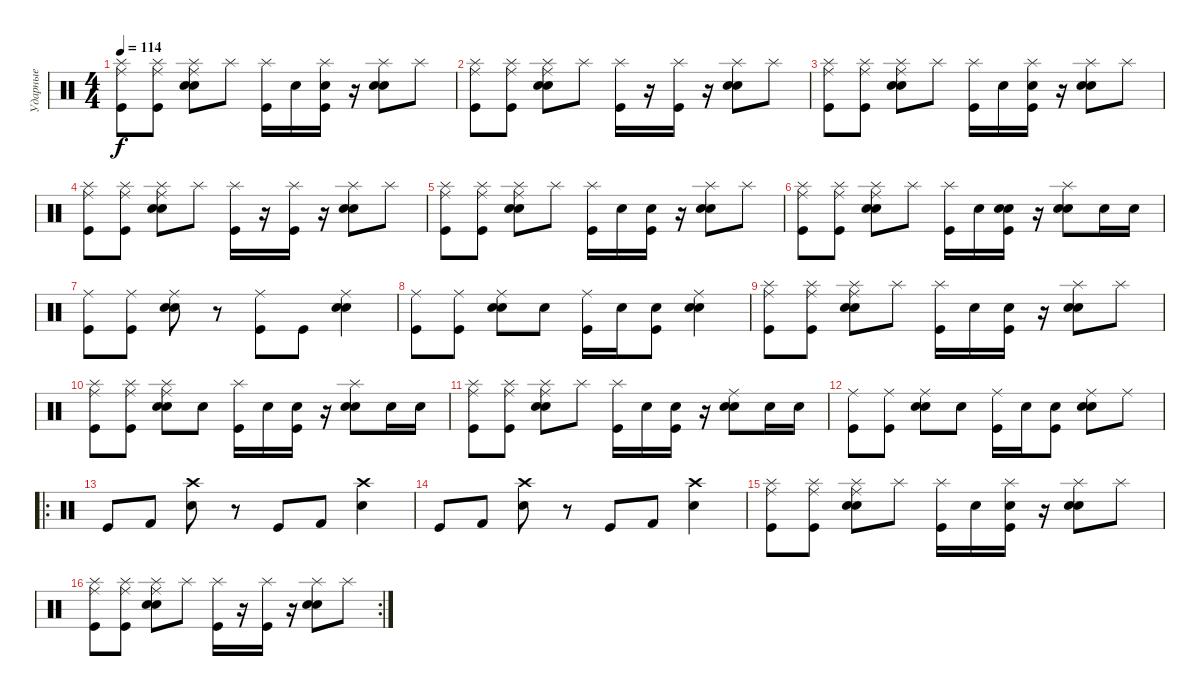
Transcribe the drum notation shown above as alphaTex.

\track ("Ударные" "Ударные") {instrument percussion}
\staff {score}
\articulation defaults
\ts (4 4)
\tempo 114
\clef neutral
\ks c
("Splash (hit)" "Ride (middle)" "Kick (hit)").8{dy f} ("Splash (hit)" "Ride (middle)" "Kick (hit)").8 ("Splash (hit)" "Ride (middle)" "Electric Snare (hit)" "Snare (hit) 2").8 "Splash (hit)".8 ("Splash (hit)" "Kick (hit)").16 "Electric Snare (hit)".16 ("Splash (hit)" "Snare (hit) 2" "Kick (hit)").16 r.16 ("Splash (hit)" "Electric Snare (hit)" "Snare (hit) 2").8 "Splash (hit)".8 |
("Splash (hit)" "Ride (middle)" "Kick (hit)").8 ("Splash (hit)" "Ride (middle)" "Kick (hit)").8 ("Splash (hit)" "Ride (middle)" "Electric Snare (hit)" "Snare (hit) 2").8 "Splash (hit)".8 ("Splash (hit)" "Kick (hit)").16 r.16 ("Splash (hit)" "Kick (hit)").16 r.16 ("Splash (hit)" "Electric Snare (hit)" "Snare (hit) 2").8 "Splash (hit)".8 |
("Splash (hit)" "Ride (middle)" "Kick (hit)").8 ("Splash (hit)" "Ride (middle)" "Kick (hit)").8 ("Splash (hit)" "Ride (middle)" "Electric Snare (hit)" "Snare (hit) 2").8 "Splash (hit)".8 ("Splash (hit)" "Kick (hit)").16 "Electric Snare (hit)".16 ("Splash (hit)" "Snare (hit) 2" "Kick (hit)").16 r.16 ("Splash (hit)" "Electric Snare (hit)" "Snare (hit) 2").8 "Splash (hit)".8 |
("Splash (hit)" "Ride (middle)" "Kick (hit)").8 ("Splash (hit)" "Ride (middle)" "Kick (hit)").8 ("Splash (hit)" "Ride (middle)" "Electric Snare (hit)" "Snare (hit) 2").8 "Splash (hit)".8 ("Splash (hit)" "Kick (hit)").16 r.16 ("Splash (hit)" "Kick (hit)").16 r.16 ("Splash (hit)" "Electric Snare (hit)" "Snare (hit) 2").8 "Splash (hit)".8 |
("Splash (hit)" "Ride (middle)" "Kick (hit)").8 ("Splash (hit)" "Ride (middle)" "Kick (hit)").8 ("Splash (hit)" "Ride (middle)" "Electric Snare (hit)" "Snare (hit) 2").8 "Splash (hit)".8 ("Splash (hit)" "Kick (hit)").16 "Electric Snare (hit)".16 ("Snare (hit) 2" "Kick (hit)").16 r.16 ("Splash (hit)" "Electric Snare (hit)" "Snare (hit) 2").8 "Splash (hit)".8 |
("Splash (hit)" "Ride (middle)" "Kick (hit)").8 ("Splash (hit)" "Ride (middle)" "Kick (hit)").8 ("Splash (hit)" "Ride (middle)" "Electric Snare (hit)" "Snare (hit) 2").8 "Splash (hit)".8 ("Splash (hit)" "Kick (hit)").16 "Electric Snare (hit)".16 ("Electric Snare (hit)" "Snare (hit) 2" "Kick (hit)").16 r.16 ("Splash (hit)" "Electric Snare (hit)" "Snare (hit) 2").8 "Electric Snare (hit)".16 "Electric Snare (hit)".16 |
("Ride (middle)" "Kick (hit)").8 ("Ride (middle)" "Kick (hit)").8 ("Ride (middle)" "Electric Snare (hit)" "Snare (hit) 2").8 r.8 ("Ride (middle)" "Kick (hit)").8 "Kick (hit)".8 ("Ride (middle)" "Electric Snare (hit)" "Snare (hit) 2").4 |
("Ride (middle)" "Kick (hit)").8 ("Ride (middle)" "Kick (hit)").8 ("Ride (middle)" "Electric Snare (hit)" "Snare (hit) 2").8 "Electric Snare (hit)".8 ("Ride (middle)" "Kick (hit)").16 "Electric Snare (hit)".16 ("Snare (hit) 2" "Kick (hit)").8 ("Ride (middle)" "Electric Snare (hit)" "Snare (hit) 2").4 |
("Splash (hit)" "Ride (middle)" "Kick (hit)").8 ("Splash (hit)" "Ride (middle)" "Kick (hit)").8 ("Splash (hit)" "Ride (middle)" "Electric Snare (hit)" "Snare (hit) 2").8 "Splash (hit)".8 ("Splash (hit)" "Kick (hit)").16 "Electric Snare (hit)".16 ("Snare (hit) 2" "Kick (hit)").16 r.16 ("Splash (hit)" "Electric Snare (hit)" "Snare (hit) 2").8 "Splash (hit)".8 |
("Splash (hit)" "Ride (middle)" "Kick (hit)").8 ("Splash (hit)" "Ride (middle)" "Kick (hit)").8 ("Splash (hit)" "Ride (middle)" "Electric Snare (hit)" "Snare (hit) 2").8 "Electric Snare (hit)".8 ("Splash (hit)" "Kick (hit)").16 "Electric Snare (hit)".16 ("Snare (hit) 2" "Kick (hit)").16 r.16 ("Splash (hit)" "Electric Snare (hit)" "Snare (hit) 2").8 "Electric Snare (hit)".16 "Electric Snare (hit)".16 |
("Splash (hit)" "Ride (middle)" "Kick (hit)").8 ("Splash (hit)" "Ride (middle)" "Kick (hit)").8 ("Splash (hit)" "Ride (middle)" "Electric Snare (hit)" "Snare (hit) 2").8 "Splash (hit)".8 ("Splash (hit)" "Kick (hit)").16 "Electric Snare (hit)".16 ("Snare (hit) 2" "Kick (hit)").16 r.16 ("Ride (middle)" "Electric Snare (hit)" "Snare (hit) 2").8 "Electric Snare (hit)".16 "Electric Snare (hit)".16 |
("Ride (middle)" "Kick (hit)").8 ("Ride (middle)" "Kick (hit)").8 ("Ride (middle)" "Electric Snare (hit)" "Snare (hit) 2").8 "Electric Snare (hit)".8 ("Ride (middle)" "Kick (hit)").16 "Electric Snare (hit)".16 ("Electric Snare (hit)" "Kick (hit)").8 ("Ride (middle)" "Electric Snare (hit)" "Snare (hit) 2").8 "Ride (middle)".8 |
\ro "Kick (hit)".8 "Kick (hit) 2".8
("Crash high (hit)" "Electric Snare (hit)").8 r.8 "Kick (hit)".8 "Kick (hit) 2".8 ("Crash high (hit)" "Electric Snare (hit)").4 |
"Kick (hit)".8 "Kick (hit) 2".8 ("Crash high (hit)" "Electric Snare (hit)").8 r.8 "Kick (hit)".8 "Kick (hit) 2".8 ("Crash high (hit)" "Electric Snare (hit)").4 |
("Splash (hit)" "Ride (middle)" "Kick (hit)").8 ("Splash (hit)" "Ride (middle)" "Kick (hit)").8 ("Splash (hit)" "Ride (middle)" "Electric Snare (hit)" "Snare (hit) 2").8 "Splash (hit)".8 ("Splash (hit)" "Kick (hit)").16 "Electric Snare (hit)".16 ("Splash (hit)" "Snare (hit) 2" "Kick (hit)").16 r.16 ("Splash (hit)" "Electric Snare (hit)" "Snare (hit) 2").8 "Splash (hit)".8 |
\rc 2
("Splash (hit)" "Ride (middle)" "Kick (hit)").8 ("Splash (hit)" "Ride (middle)" "Kick (hit)").8 ("Splash (hit)" "Ride (middle)" "Electric Snare (hit)" "Snare (hit) 2").8 "Splash (hit)".8 ("Splash (hit)" "Kick (hit)").16 r.16 ("Splash (hit)" "Kick (hit)").16 r.16 ("Splash (hit)" "Electric Snare (hit)" "Snare (hit) 2").8 "Splash (hit)".8
